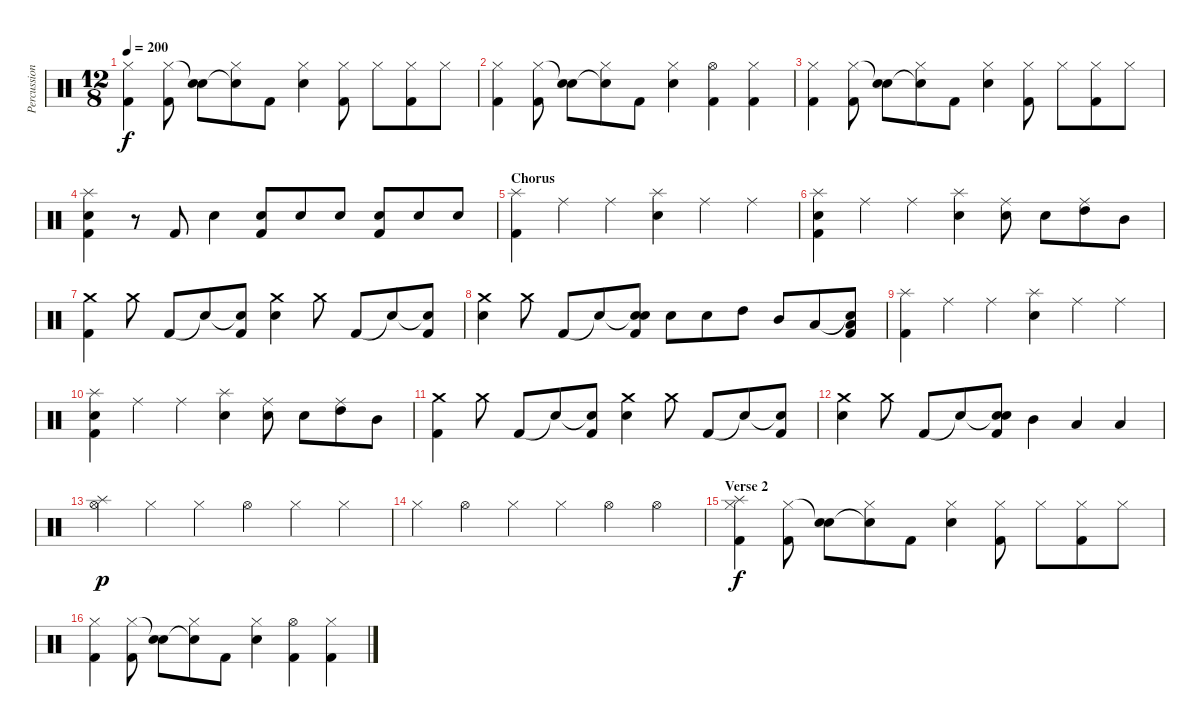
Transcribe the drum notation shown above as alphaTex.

\track ("Percussion" "Percussion") {instrument percussion}
\staff {score}
\articulation defaults
\ts (12 8)
\tempo 200
\clef neutral
\ks c
("Hi-Hat (closed)" "Kick (hit) 2").4{dy f} ("Hi-Hat (closed)" "Kick (hit) 2").8 ("Snare (hit)"{t} "Electric Snare (hit)").8 ("Hi-Hat (closed)" "Electric Snare (hit)"{t}).8 "Kick (hit) 2".8 ("Hi-Hat (closed)" "Electric Snare (hit)").4 ("Hi-Hat (closed)" "Kick (hit) 2").8 "Hi-Hat (closed)".8 ("Hi-Hat (closed)" "Kick (hit) 2").8 "Hi-Hat (closed)".8 |
("Hi-Hat (closed)" "Kick (hit) 2").4 ("Hi-Hat (closed)" "Kick (hit) 2").8 ("Snare (hit)"{t} "Electric Snare (hit)").8 ("Hi-Hat (closed)" "Electric Snare (hit)"{t}).8 "Kick (hit) 2".8 ("Hi-Hat (closed)" "Electric Snare (hit)").4 ("Hi-Hat (open)" "Kick (hit) 2").4 ("Hi-Hat (closed)" "Kick (hit) 2").4 |
("Hi-Hat (closed)" "Kick (hit) 2").4 ("Hi-Hat (closed)" "Kick (hit) 2").8 ("Snare (hit)"{t} "Electric Snare (hit)").8 ("Hi-Hat (closed)" "Electric Snare (hit)"{t}).8 "Kick (hit) 2".8 ("Hi-Hat (closed)" "Electric Snare (hit)").4 ("Hi-Hat (closed)" "Kick (hit) 2").8 "Hi-Hat (closed)".8 ("Hi-Hat (closed)" "Kick (hit) 2").8 "Hi-Hat (closed)".8 |
("Splash (hit)" "Electric Snare (hit)" "Kick (hit) 2").4 r.8 "Kick (hit) 2".8 "Electric Snare (hit)".4 ("Electric Snare (hit)" "Kick (hit) 2").8 "Electric Snare (hit)".8 "Electric Snare (hit)".8 ("Electric Snare (hit)" "Kick (hit) 2").8 "Electric Snare (hit)".8 "Electric Snare (hit)".8 |
\section ("" "Chorus")
("Splash (hit)" "Kick (hit) 2").4 "Ride (middle)".4 "Ride (middle)".4 ("Splash (hit)" "Electric Snare (hit)").4 "Ride (middle)".4 "Ride (middle)".4 |
("Splash (hit)" "Electric Snare (hit)" "Kick (hit) 2").4 "Ride (middle)".4 "Ride (middle)".4 ("Splash (hit)" "Electric Snare (hit)").4 ("Ride (middle)" "Electric Snare (hit)").8 "Electric Snare (hit)".8 ("Ride (middle)" "High Tom (hit)").8 "Mid Tom (hit)".8 |
("Crash medium (hit)" "Kick (hit) 2").4 "Crash medium (hit)".8 "Kick (hit) 2".8 "Snare (hit)"{t}.8 ("Snare (hit)"{t} "Kick (hit) 2").8 ("Crash medium (hit)" "Electric Snare (hit)").4 "Crash medium (hit)".8 "Kick (hit) 2".8 "Snare (hit)"{t}.8 ("Snare (hit)"{t} "Kick (hit) 2").8 |
("Crash medium (hit)" "Electric Snare (hit)").4 "Crash medium (hit)".8 "Kick (hit) 2".8 "Snare (hit)"{t}.8 ("Snare (hit)"{t} "Electric Snare (hit)" "Kick (hit) 2").8 "Electric Snare (hit)".8 "Electric Snare (hit)".8 "High Tom (hit)".8 "Mid Tom (hit)".8 "Low Tom (hit)".8 ("Snare (hit)"{t} "Low Tom (hit)" "Kick (hit) 2").8 |
("Splash (hit)" "Kick (hit) 2").4 "Ride (middle)".4 "Ride (middle)".4 ("Splash (hit)" "Electric Snare (hit)").4 "Ride (middle)".4 "Ride (middle)".4 |
("Splash (hit)" "Electric Snare (hit)" "Kick (hit) 2").4 "Ride (middle)".4 "Ride (middle)".4 ("Splash (hit)" "Electric Snare (hit)").4 ("Ride (middle)" "Electric Snare (hit)").8 "Electric Snare (hit)".8 ("Ride (middle)" "High Tom (hit)").8 "Mid Tom (hit)".8 |
("Crash medium (hit)" "Kick (hit) 2").4 "Crash medium (hit)".8 "Kick (hit) 2".8 "Snare (hit)"{t}.8 ("Snare (hit)"{t} "Kick (hit) 2").8 ("Crash medium (hit)" "Electric Snare (hit)").4 "Crash medium (hit)".8 "Kick (hit) 2".8 "Snare (hit)"{t}.8 ("Snare (hit)"{t} "Kick (hit) 2").8 |
("Crash medium (hit)" "Electric Snare (hit)").4 "Crash medium (hit)".8 "Kick (hit) 2".8 "Snare (hit)"{t}.8 ("Snare (hit)"{t} "Electric Snare (hit)" "Kick (hit) 2").8 "Mid Tom (hit)".4 "Low Tom (hit)".4 "Low Tom (hit)".4 |
("Splash (hit)" "Hi-Hat (open)").4{dy p} "Hi-Hat (closed)".4 "Hi-Hat (closed)".4 "Hi-Hat (open)".4 "Hi-Hat (closed)".4 "Hi-Hat (closed)".4 |
"Hi-Hat (closed)".4 "Hi-Hat (open)".4 "Hi-Hat (closed)".4 "Hi-Hat (closed)".4 "Hi-Hat (open)".4 "Hi-Hat (open)".4 |
\section ("" "Verse 2")
("Splash (hit)" "Hi-Hat (closed)" "Kick (hit) 2").4{dy f} ("Hi-Hat (closed)" "Kick (hit) 2").8 ("Snare (hit)"{t} "Electric Snare (hit)").8 ("Hi-Hat (closed)" "Electric Snare (hit)"{t}).8 "Kick (hit) 2".8 ("Hi-Hat (closed)" "Electric Snare (hit)").4 ("Hi-Hat (closed)" "Kick (hit) 2").8 "Hi-Hat (closed)".8 ("Hi-Hat (closed)" "Kick (hit) 2").8 "Hi-Hat (closed)".8 |
("Hi-Hat (closed)" "Kick (hit) 2").4 ("Hi-Hat (closed)" "Kick (hit) 2").8 ("Snare (hit)"{t} "Electric Snare (hit)").8 ("Hi-Hat (closed)" "Electric Snare (hit)"{t}).8 "Kick (hit) 2".8 ("Hi-Hat (closed)" "Electric Snare (hit)").4 ("Hi-Hat (open)" "Kick (hit) 2").4 ("Hi-Hat (closed)" "Kick (hit) 2").4
